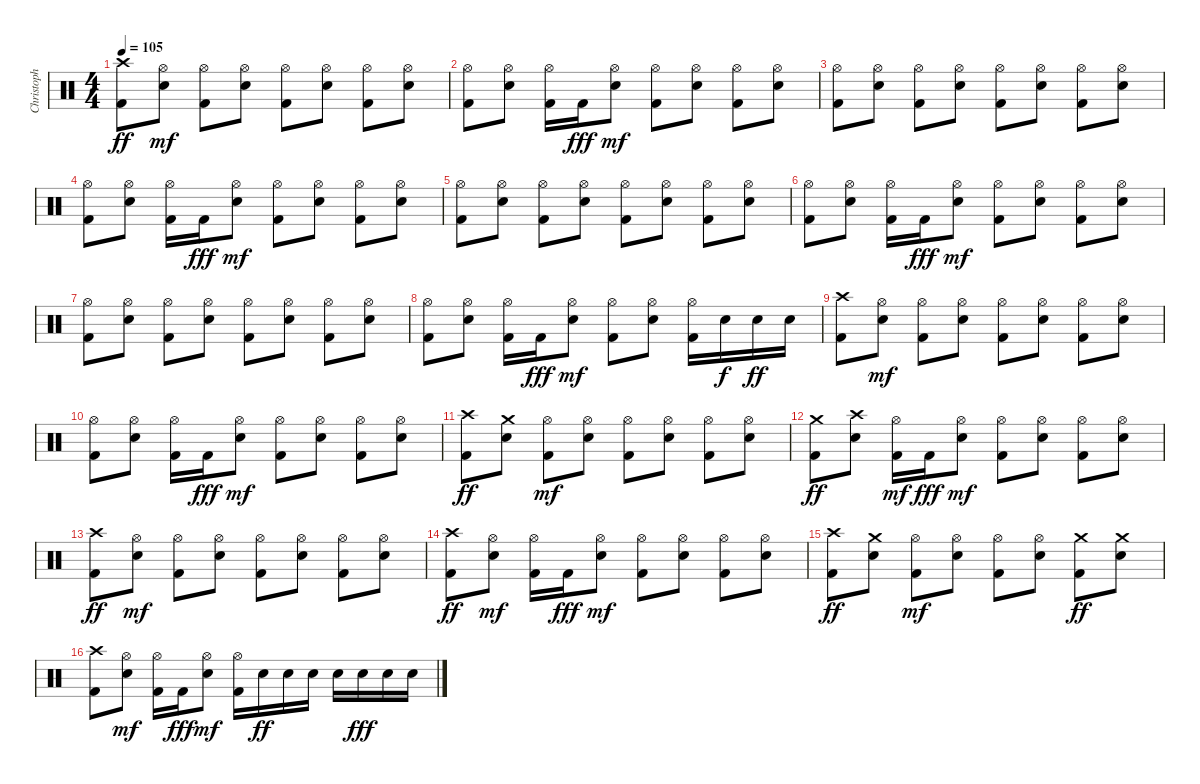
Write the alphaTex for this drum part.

\track ("Christoph \"Doom\" Schneider" "Christoph ") {instrument percussion}
\staff {score}
\articulation defaults
\ts (4 4)
\tempo 105
\clef neutral
\ks c
("Kick (hit) 2" "Crash high (hit)").8{dy ff} ("Hi-Hat (open)" "Electric Snare (hit)").8{dy mf} ("Kick (hit) 2" "Hi-Hat (open)").8 ("Hi-Hat (open)" "Electric Snare (hit)").8 ("Kick (hit) 2" "Hi-Hat (open)").8 ("Hi-Hat (open)" "Electric Snare (hit)").8 ("Kick (hit) 2" "Hi-Hat (open)").8 ("Hi-Hat (open)" "Electric Snare (hit)").8 |
("Kick (hit) 2" "Hi-Hat (open)").8 ("Hi-Hat (open)" "Electric Snare (hit)").8 ("Kick (hit) 2" "Hi-Hat (open)").16 "Kick (hit) 2".16{dy fff} ("Hi-Hat (open)" "Electric Snare (hit)").8{dy mf} ("Kick (hit) 2" "Hi-Hat (open)").8 ("Hi-Hat (open)" "Electric Snare (hit)").8 ("Kick (hit) 2" "Hi-Hat (open)").8 ("Hi-Hat (open)" "Electric Snare (hit)").8 |
("Kick (hit) 2" "Hi-Hat (open)").8 ("Hi-Hat (open)" "Electric Snare (hit)").8 ("Kick (hit) 2" "Hi-Hat (open)").8 ("Hi-Hat (open)" "Electric Snare (hit)").8 ("Kick (hit) 2" "Hi-Hat (open)").8 ("Hi-Hat (open)" "Electric Snare (hit)").8 ("Kick (hit) 2" "Hi-Hat (open)").8 ("Hi-Hat (open)" "Electric Snare (hit)").8 |
("Kick (hit) 2" "Hi-Hat (open)").8 ("Hi-Hat (open)" "Electric Snare (hit)").8 ("Kick (hit) 2" "Hi-Hat (open)").16 "Kick (hit) 2".16{dy fff} ("Hi-Hat (open)" "Electric Snare (hit)").8{dy mf} ("Kick (hit) 2" "Hi-Hat (open)").8 ("Hi-Hat (open)" "Electric Snare (hit)").8 ("Kick (hit) 2" "Hi-Hat (open)").8 ("Hi-Hat (open)" "Electric Snare (hit)").8 |
("Kick (hit) 2" "Hi-Hat (open)").8 ("Hi-Hat (open)" "Electric Snare (hit)").8 ("Kick (hit) 2" "Hi-Hat (open)").8 ("Hi-Hat (open)" "Electric Snare (hit)").8 ("Kick (hit) 2" "Hi-Hat (open)").8 ("Hi-Hat (open)" "Electric Snare (hit)").8 ("Kick (hit) 2" "Hi-Hat (open)").8 ("Hi-Hat (open)" "Electric Snare (hit)").8 |
("Kick (hit) 2" "Hi-Hat (open)").8 ("Hi-Hat (open)" "Electric Snare (hit)").8 ("Kick (hit) 2" "Hi-Hat (open)").16 "Kick (hit) 2".16{dy fff} ("Hi-Hat (open)" "Electric Snare (hit)").8{dy mf} ("Kick (hit) 2" "Hi-Hat (open)").8 ("Hi-Hat (open)" "Electric Snare (hit)").8 ("Kick (hit) 2" "Hi-Hat (open)").8 ("Hi-Hat (open)" "Electric Snare (hit)").8 |
("Kick (hit) 2" "Hi-Hat (open)").8 ("Hi-Hat (open)" "Electric Snare (hit)").8 ("Kick (hit) 2" "Hi-Hat (open)").8 ("Hi-Hat (open)" "Electric Snare (hit)").8 ("Kick (hit) 2" "Hi-Hat (open)").8 ("Hi-Hat (open)" "Electric Snare (hit)").8 ("Kick (hit) 2" "Hi-Hat (open)").8 ("Hi-Hat (open)" "Electric Snare (hit)").8 |
("Kick (hit) 2" "Hi-Hat (open)").8 ("Hi-Hat (open)" "Electric Snare (hit)").8 ("Kick (hit) 2" "Hi-Hat (open)").16 "Kick (hit) 2".16{dy fff} ("Hi-Hat (open)" "Electric Snare (hit)").8{dy mf} ("Kick (hit) 2" "Hi-Hat (open)").8 ("Hi-Hat (open)" "Electric Snare (hit)").8 ("Kick (hit) 2" "Hi-Hat (open)").16 "Electric Snare (hit)".16{dy f} "Electric Snare (hit)".16{dy ff} "Electric Snare (hit)".16 |
("Kick (hit) 2" "Crash high (hit)").8 ("Hi-Hat (open)" "Electric Snare (hit)").8{dy mf} ("Kick (hit) 2" "Hi-Hat (open)").8 ("Hi-Hat (open)" "Electric Snare (hit)").8 ("Kick (hit) 2" "Hi-Hat (open)").8 ("Hi-Hat (open)" "Electric Snare (hit)").8 ("Kick (hit) 2" "Hi-Hat (open)").8 ("Hi-Hat (open)" "Electric Snare (hit)").8 |
("Kick (hit) 2" "Hi-Hat (open)").8 ("Hi-Hat (open)" "Electric Snare (hit)").8 ("Kick (hit) 2" "Hi-Hat (open)").16 "Kick (hit) 2".16{dy fff} ("Hi-Hat (open)" "Electric Snare (hit)").8{dy mf} ("Kick (hit) 2" "Hi-Hat (open)").8 ("Hi-Hat (open)" "Electric Snare (hit)").8 ("Kick (hit) 2" "Hi-Hat (open)").8 ("Hi-Hat (open)" "Electric Snare (hit)").8 |
("Kick (hit) 2" "Crash high (hit)").8{dy ff} ("Crash medium (hit)" "Electric Snare (hit)").8 ("Kick (hit) 2" "Hi-Hat (open)").8{dy mf} ("Hi-Hat (open)" "Electric Snare (hit)").8 ("Kick (hit) 2" "Hi-Hat (open)").8 ("Hi-Hat (open)" "Electric Snare (hit)").8 ("Kick (hit) 2" "Hi-Hat (open)").8 ("Hi-Hat (open)" "Electric Snare (hit)").8 |
("Kick (hit) 2" "Crash medium (hit)").8{dy ff} ("Crash high (hit)" "Electric Snare (hit)").8 ("Kick (hit) 2" "Hi-Hat (open)").16{dy mf} "Kick (hit) 2".16{dy fff} ("Hi-Hat (open)" "Electric Snare (hit)").8{dy mf} ("Kick (hit) 2" "Hi-Hat (open)").8 ("Hi-Hat (open)" "Electric Snare (hit)").8 ("Kick (hit) 2" "Hi-Hat (open)").8 ("Hi-Hat (open)" "Electric Snare (hit)").8 |
("Kick (hit) 2" "Crash high (hit)").8{dy ff} ("Hi-Hat (open)" "Electric Snare (hit)").8{dy mf} ("Kick (hit) 2" "Hi-Hat (open)").8 ("Hi-Hat (open)" "Electric Snare (hit)").8 ("Kick (hit) 2" "Hi-Hat (open)").8 ("Hi-Hat (open)" "Electric Snare (hit)").8 ("Kick (hit) 2" "Hi-Hat (open)").8 ("Hi-Hat (open)" "Electric Snare (hit)").8 |
("Kick (hit) 2" "Crash high (hit)").8{dy ff} ("Hi-Hat (open)" "Electric Snare (hit)").8{dy mf} ("Kick (hit) 2" "Hi-Hat (open)").16 "Kick (hit) 2".16{dy fff} ("Hi-Hat (open)" "Electric Snare (hit)").8{dy mf} ("Kick (hit) 2" "Hi-Hat (open)").8 ("Hi-Hat (open)" "Electric Snare (hit)").8 ("Kick (hit) 2" "Hi-Hat (open)").8 ("Hi-Hat (open)" "Electric Snare (hit)").8 |
("Kick (hit) 2" "Crash high (hit)").8{dy ff} ("Crash medium (hit)" "Electric Snare (hit)").8 ("Kick (hit) 2" "Hi-Hat (open)").8{dy mf} ("Hi-Hat (open)" "Electric Snare (hit)").8 ("Kick (hit) 2" "Hi-Hat (open)").8 ("Hi-Hat (open)" "Electric Snare (hit)").8 ("Kick (hit) 2" "Crash medium (hit)").8{dy ff} ("Crash medium (hit)" "Electric Snare (hit)").8 |
("Kick (hit) 2" "Crash high (hit)").8 ("Hi-Hat (open)" "Electric Snare (hit)").8{dy mf} ("Kick (hit) 2" "Hi-Hat (open)").16 "Kick (hit) 2".16{dy fff} ("Hi-Hat (open)" "Electric Snare (hit)").8{dy mf} ("Kick (hit) 2" "Hi-Hat (open)").16 "Electric Snare (hit)".16{dy ff} "Electric Snare (hit)".16 "Electric Snare (hit)".16 "Electric Snare (hit)".16 "Electric Snare (hit)".16{dy fff} "Electric Snare (hit)".16 "Electric Snare (hit)".16
